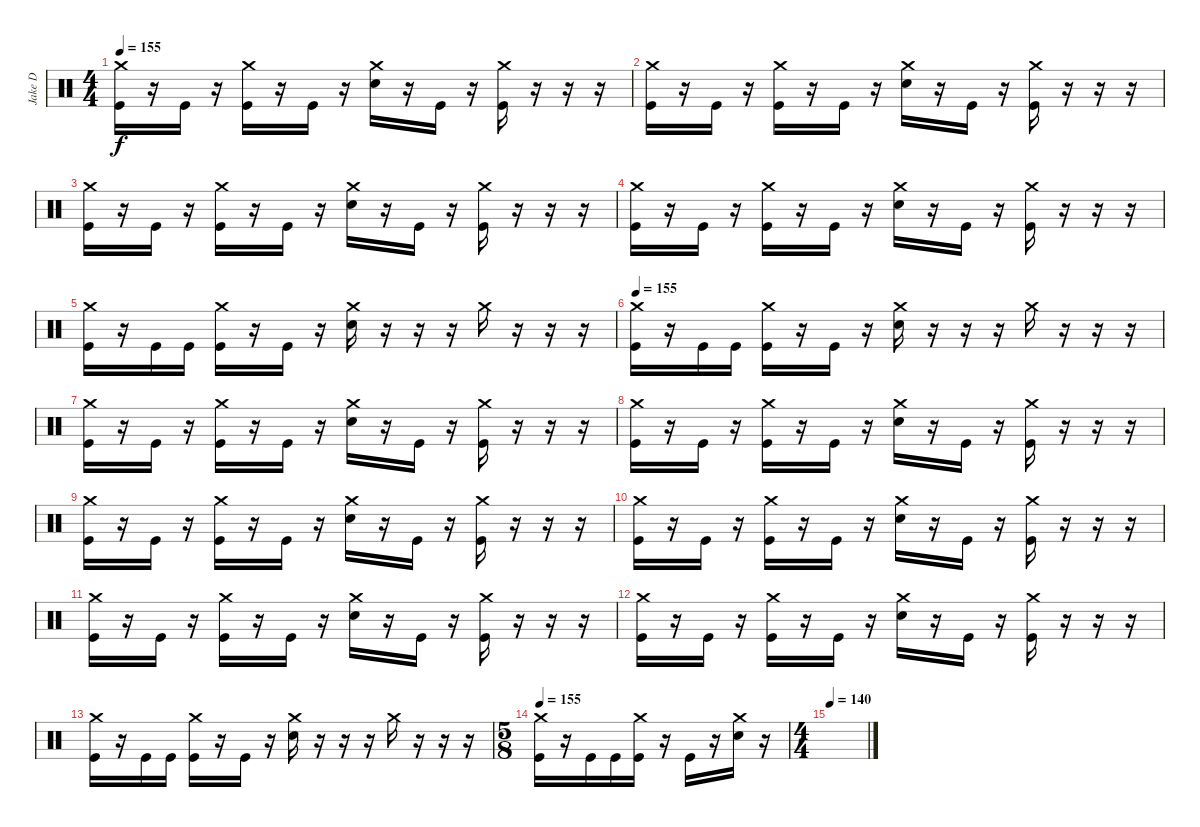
\track ("Jake D" "Jake D") {instrument percussion}
\staff {score}
\articulation defaults
\ts (4 4)
\tempo 155
\clef neutral
\ks c
("Crash medium (hit)" "Kick (hit)").16{dy f} r.16 "Kick (hit)".16 r.16 ("Crash medium (hit)" "Kick (hit)").16 r.16 "Kick (hit)".16 r.16 ("Crash medium (hit)" "Electric Snare (hit)").16 r.16 "Kick (hit)".16 r.16 ("Crash medium (hit)" "Kick (hit)").16 r.16 r.16 r.16 |
("Crash medium (hit)" "Kick (hit)").16 r.16 "Kick (hit)".16 r.16 ("Crash medium (hit)" "Kick (hit)").16 r.16 "Kick (hit)".16 r.16 ("Crash medium (hit)" "Electric Snare (hit)").16 r.16 "Kick (hit)".16 r.16 ("Crash medium (hit)" "Kick (hit)").16 r.16 r.16 r.16 |
("Crash medium (hit)" "Kick (hit)").16 r.16 "Kick (hit)".16 r.16 ("Crash medium (hit)" "Kick (hit)").16 r.16 "Kick (hit)".16 r.16 ("Crash medium (hit)" "Electric Snare (hit)").16 r.16 "Kick (hit)".16 r.16 ("Crash medium (hit)" "Kick (hit)").16 r.16 r.16 r.16 |
("Crash medium (hit)" "Kick (hit)").16 r.16 "Kick (hit)".16 r.16 ("Crash medium (hit)" "Kick (hit)").16 r.16 "Kick (hit)".16 r.16 ("Crash medium (hit)" "Electric Snare (hit)").16 r.16 "Kick (hit)".16 r.16 ("Crash medium (hit)" "Kick (hit)").16 r.16 r.16 r.16 |
("Crash medium (hit)" "Kick (hit)").16 r.16 "Kick (hit)".16 "Kick (hit)".16 ("Crash medium (hit)" "Kick (hit)").16 r.16 "Kick (hit)".16 r.16 ("Crash medium (hit)" "Electric Snare (hit)").16 r.16 r.16 r.16 "Crash medium (hit)".16 r.16 r.16 r.16 |
\tempo 155
("Crash medium (hit)" "Kick (hit)").16 r.16 "Kick (hit)".16 "Kick (hit)".16 ("Crash medium (hit)" "Kick (hit)").16 r.16 "Kick (hit)".16 r.16 ("Crash medium (hit)" "Electric Snare (hit)").16 r.16 r.16 r.16 "Crash medium (hit)".16 r.16 r.16 r.16 |
("Crash medium (hit)" "Kick (hit)").16 r.16 "Kick (hit)".16 r.16 ("Crash medium (hit)" "Kick (hit)").16 r.16 "Kick (hit)".16 r.16 ("Crash medium (hit)" "Electric Snare (hit)").16 r.16 "Kick (hit)".16 r.16 ("Crash medium (hit)" "Kick (hit)").16 r.16 r.16 r.16 |
("Crash medium (hit)" "Kick (hit)").16 r.16 "Kick (hit)".16 r.16 ("Crash medium (hit)" "Kick (hit)").16 r.16 "Kick (hit)".16 r.16 ("Crash medium (hit)" "Electric Snare (hit)").16 r.16 "Kick (hit)".16 r.16 ("Crash medium (hit)" "Kick (hit)").16 r.16 r.16 r.16 |
("Crash medium (hit)" "Kick (hit)").16 r.16 "Kick (hit)".16 r.16 ("Crash medium (hit)" "Kick (hit)").16 r.16 "Kick (hit)".16 r.16 ("Crash medium (hit)" "Electric Snare (hit)").16 r.16 "Kick (hit)".16 r.16 ("Crash medium (hit)" "Kick (hit)").16 r.16 r.16 r.16 |
("Crash medium (hit)" "Kick (hit)").16 r.16 "Kick (hit)".16 r.16 ("Crash medium (hit)" "Kick (hit)").16 r.16 "Kick (hit)".16 r.16 ("Crash medium (hit)" "Electric Snare (hit)").16 r.16 "Kick (hit)".16 r.16 ("Crash medium (hit)" "Kick (hit)").16 r.16 r.16 r.16 |
("Crash medium (hit)" "Kick (hit)").16 r.16 "Kick (hit)".16 r.16 ("Crash medium (hit)" "Kick (hit)").16 r.16 "Kick (hit)".16 r.16 ("Crash medium (hit)" "Electric Snare (hit)").16 r.16 "Kick (hit)".16 r.16 ("Crash medium (hit)" "Kick (hit)").16 r.16 r.16 r.16 |
("Crash medium (hit)" "Kick (hit)").16 r.16 "Kick (hit)".16 r.16 ("Crash medium (hit)" "Kick (hit)").16 r.16 "Kick (hit)".16 r.16 ("Crash medium (hit)" "Electric Snare (hit)").16 r.16 "Kick (hit)".16 r.16 ("Crash medium (hit)" "Kick (hit)").16 r.16 r.16 r.16 |
("Crash medium (hit)" "Kick (hit)").16 r.16 "Kick (hit)".16 "Kick (hit)".16 ("Crash medium (hit)" "Kick (hit)").16 r.16 "Kick (hit)".16 r.16 ("Crash medium (hit)" "Electric Snare (hit)").16 r.16 r.16 r.16 "Crash medium (hit)".16 r.16 r.16 r.16 |
\ts (5 8)
\tempo 155
("Crash medium (hit)" "Kick (hit)").16 r.16 "Kick (hit)".16 "Kick (hit)".16 ("Crash medium (hit)" "Kick (hit)").16 r.16 "Kick (hit)".16 r.16 ("Crash medium (hit)" "Electric Snare (hit)").16 r.16 |
\ts (4 4)
\tempo 140
